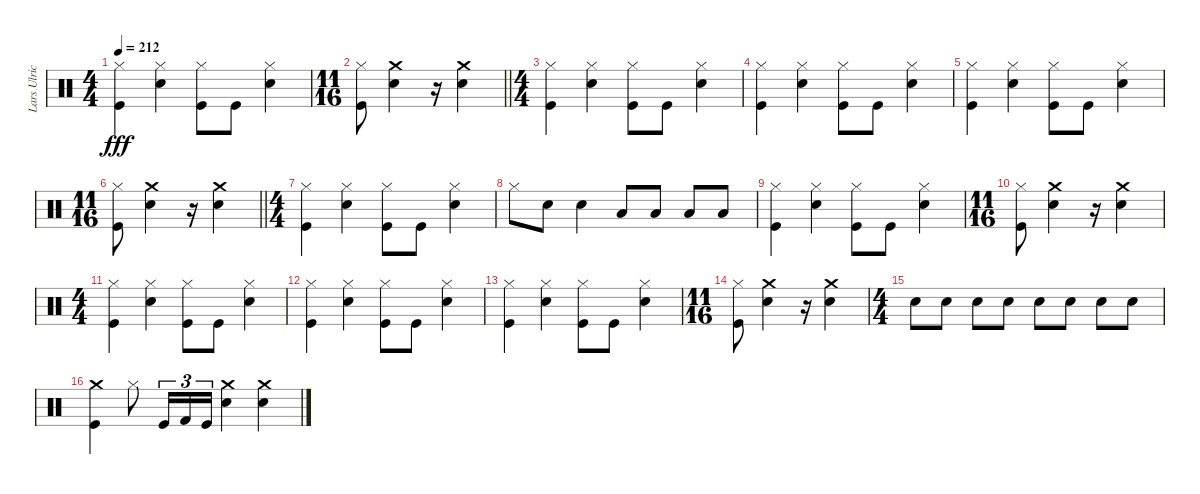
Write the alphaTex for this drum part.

\track ("Lars Ulrich" "Lars Ulric") {instrument percussion}
\staff {score}
\articulation defaults
\ts (4 4)
\tempo 212
\clef neutral
\ks c
("Kick (hit)" "Hi-Hat (closed)").4{dy fff} ("Snare (hit) 2" "Hi-Hat (closed)").4 ("Kick (hit)" "Hi-Hat (closed)").8 "Kick (hit)".8 ("Snare (hit) 2" "Hi-Hat (closed)").4 |
\ts (11 16)
\barLineRight lightlight
("Kick (hit)" "Hi-Hat (closed)").8 ("Snare (hit) 2" "Crash medium (hit)").4 r.16 ("Crash medium (hit)" "Snare (hit) 2").4 |
\ts (4 4)
("Kick (hit)" "Hi-Hat (closed)").4 ("Snare (hit) 2" "Hi-Hat (closed)").4 ("Kick (hit)" "Hi-Hat (closed)").8 "Kick (hit)".8 ("Snare (hit) 2" "Hi-Hat (closed)").4 |
("Hi-Hat (closed)" "Kick (hit)").4 ("Snare (hit) 2" "Hi-Hat (closed)").4 ("Kick (hit)" "Hi-Hat (closed)").8 "Kick (hit)".8 ("Snare (hit) 2" "Hi-Hat (closed)").4 |
("Kick (hit)" "Hi-Hat (closed)").4 ("Snare (hit) 2" "Hi-Hat (closed)").4 ("Hi-Hat (closed)" "Kick (hit)").8 "Kick (hit)".8 ("Snare (hit) 2" "Hi-Hat (closed)").4 |
\ts (11 16)
\barLineRight lightlight
("Kick (hit)" "Hi-Hat (closed)").8 ("Crash medium (hit)" "Snare (hit) 2").4 r.16 ("Crash medium (hit)" "Snare (hit) 2").4 |
\ts (4 4)
("Kick (hit)" "Hi-Hat (closed)").4 ("Snare (hit) 2" "Hi-Hat (closed)").4 ("Kick (hit)" "Hi-Hat (closed)").8 "Kick (hit)".8 ("Snare (hit) 2" "Hi-Hat (closed)").4 |
"Hi-Hat (closed)".8 "Snare (hit) 2".8 "Snare (hit) 2".4 "Low Tom (hit)".8 "Low Tom (hit)".8 "Low Tom (hit)".8 "Low Tom (hit)".8 |
("Kick (hit)" "Hi-Hat (closed)").4 ("Hi-Hat (closed)" "Snare (hit) 2").4 ("Kick (hit)" "Hi-Hat (closed)").8 "Kick (hit)".8 ("Snare (hit) 2" "Hi-Hat (closed)").4 |
\ts (11 16)
("Kick (hit)" "Hi-Hat (closed)").8 ("Crash medium (hit)" "Snare (hit) 2").4 r.16 ("Crash medium (hit)" "Snare (hit) 2").4 |
\ts (4 4)
("Hi-Hat (closed)" "Kick (hit)").4 ("Snare (hit) 2" "Hi-Hat (closed)").4 ("Kick (hit)" "Hi-Hat (closed)").8 "Kick (hit)".8 ("Snare (hit) 2" "Hi-Hat (closed)").4 |
("Kick (hit)" "Hi-Hat (closed)").4 ("Snare (hit) 2" "Hi-Hat (closed)").4 ("Hi-Hat (closed)" "Kick (hit)").8 "Kick (hit)".8 ("Snare (hit) 2" "Hi-Hat (closed)").4 |
("Kick (hit)" "Hi-Hat (closed)").4 ("Snare (hit) 2" "Hi-Hat (closed)").4 ("Kick (hit)" "Hi-Hat (closed)").8 "Kick (hit)".8 ("Hi-Hat (closed)" "Snare (hit) 2").4 |
\ts (11 16)
("Hi-Hat (closed)" "Kick (hit)").8 ("Crash medium (hit)" "Snare (hit) 2").4 r.16 ("Crash medium (hit)" "Snare (hit) 2").4 |
\ts (4 4)
"Snare (hit) 2".8 "Snare (hit) 2".8 "Snare (hit) 2".8 "Snare (hit) 2".8 "Snare (hit) 2".8 "Snare (hit) 2".8 "Snare (hit) 2".8 "Snare (hit) 2".8 |
("Crash medium (hit)" "Kick (hit)").4 "Hi-Hat (closed)".8 "Kick (hit)".16{tu (3 2)} "Kick (hit) 2".16{tu (3 2)} "Kick (hit)".16{tu (3 2)} ("Crash medium (hit)" "Snare (hit) 2").4 ("Crash medium (hit)" "Snare (hit) 2").4
